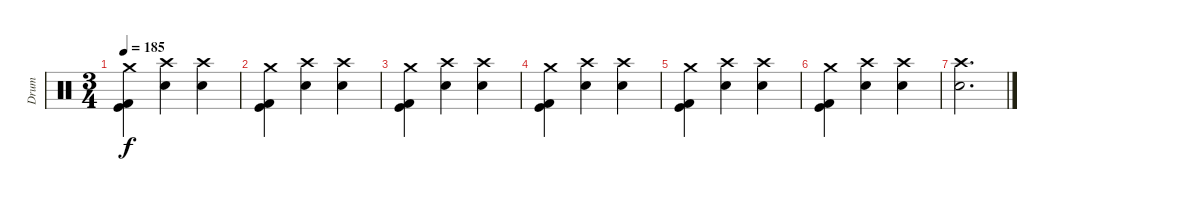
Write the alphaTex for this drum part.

\track ("Drum" "Drum") {instrument percussion}
\staff {score}
\articulation defaults
\ts (3 4)
\tempo 185
\clef neutral
\ks c
("Crash medium (hit)" "Kick (hit)" "Kick (hit) 2").4{dy f} ("Crash high (hit)" "Electric Snare (hit)").4 ("Crash high (hit)" "Electric Snare (hit)").4 |
("Crash medium (hit)" "Kick (hit)" "Kick (hit) 2").4 ("Crash high (hit)" "Electric Snare (hit)").4 ("Crash high (hit)" "Electric Snare (hit)").4 |
("Crash medium (hit)" "Kick (hit)" "Kick (hit) 2").4 ("Crash high (hit)" "Electric Snare (hit)").4 ("Crash high (hit)" "Electric Snare (hit)").4 |
("Crash medium (hit)" "Kick (hit)" "Kick (hit) 2").4 ("Crash high (hit)" "Electric Snare (hit)").4 ("Crash high (hit)" "Electric Snare (hit)").4 |
("Crash medium (hit)" "Kick (hit)" "Kick (hit) 2").4 ("Crash high (hit)" "Electric Snare (hit)").4 ("Crash high (hit)" "Electric Snare (hit)").4 |
("Crash medium (hit)" "Kick (hit)" "Kick (hit) 2").4 ("Crash high (hit)" "Electric Snare (hit)").4 ("Crash high (hit)" "Electric Snare (hit)").4 |
("Crash high (hit)" "Electric Snare (hit)").2{d}
